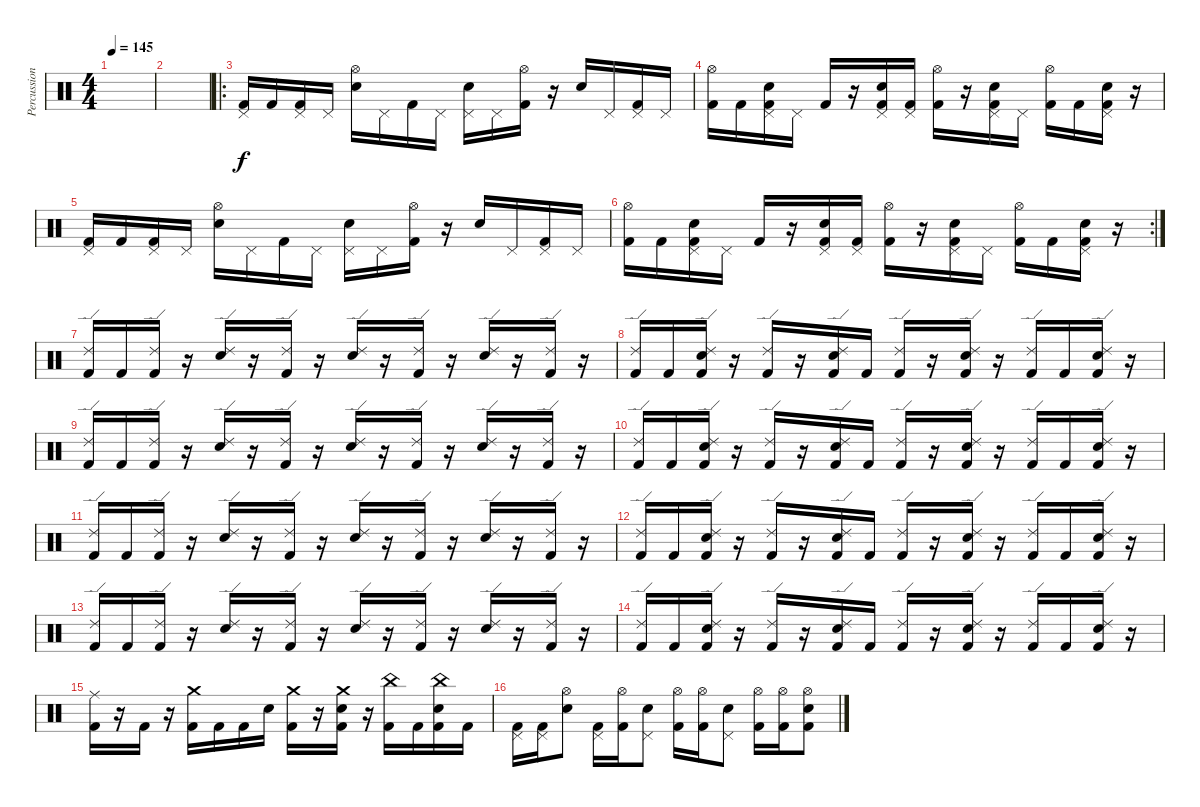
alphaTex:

\track ("Percussion" "Percussion") {instrument percussion}
\staff {score}
\articulation defaults
\ts (4 4)
\tempo 145
\clef neutral
\ks c
|
|
\ro
("Pedal Hi-Hat (hit)" "Kick (hit) 2").16 "Kick (hit) 2".16 ("Pedal Hi-Hat (hit)" "Kick (hit) 2").16 "Pedal Hi-Hat (hit)".16 ("Hi-Hat (open)" "Snare (hit) 2").16 "Pedal Hi-Hat (hit)".16 "Kick (hit) 2".16 "Pedal Hi-Hat (hit)".16 ("Pedal Hi-Hat (hit)" "Snare (hit) 2").16 "Pedal Hi-Hat (hit)".16 ("Hi-Hat (open)" "Kick (hit) 2").16 r.16 "Snare (hit) 2".16 "Pedal Hi-Hat (hit)".16 ("Pedal Hi-Hat (hit)" "Kick (hit) 2").16 "Pedal Hi-Hat (hit)".16 |
("Hi-Hat (open)" "Kick (hit) 2").16 "Kick (hit) 2".16 ("Pedal Hi-Hat (hit)" "Snare (hit) 2" "Kick (hit) 2").16 "Pedal Hi-Hat (hit)".16 "Kick (hit) 2".16 r.16 ("Pedal Hi-Hat (hit)" "Snare (hit) 2" "Kick (hit) 2").16 ("Pedal Hi-Hat (hit)" "Kick (hit) 2").16 ("Hi-Hat (open)" "Kick (hit) 2").16 r.16 ("Pedal Hi-Hat (hit)" "Snare (hit) 2" "Kick (hit) 2").16 "Pedal Hi-Hat (hit)".16 ("Hi-Hat (open)" "Kick (hit) 2").16 "Kick (hit) 2".16 ("Pedal Hi-Hat (hit)" "Snare (hit) 2" "Kick (hit) 2").16 r.16 |
("Pedal Hi-Hat (hit)" "Kick (hit) 2").16 "Kick (hit) 2".16 ("Pedal Hi-Hat (hit)" "Kick (hit) 2").16 "Pedal Hi-Hat (hit)".16 ("Hi-Hat (open)" "Snare (hit) 2").16 "Pedal Hi-Hat (hit)".16 "Kick (hit) 2".16 "Pedal Hi-Hat (hit)".16 ("Pedal Hi-Hat (hit)" "Snare (hit) 2").16 "Pedal Hi-Hat (hit)".16 ("Hi-Hat (open)" "Kick (hit) 2").16 r.16 "Snare (hit) 2".16 "Pedal Hi-Hat (hit)".16 ("Pedal Hi-Hat (hit)" "Kick (hit) 2").16 "Pedal Hi-Hat (hit)".16 |
\rc 2
("Hi-Hat (open)" "Kick (hit) 2").16 "Kick (hit) 2".16 ("Pedal Hi-Hat (hit)" "Snare (hit) 2" "Kick (hit) 2").16 "Pedal Hi-Hat (hit)".16 "Kick (hit) 2".16 r.16 ("Pedal Hi-Hat (hit)" "Snare (hit) 2" "Kick (hit) 2").16 ("Pedal Hi-Hat (hit)" "Kick (hit) 2").16 ("Hi-Hat (open)" "Kick (hit) 2").16 r.16 ("Pedal Hi-Hat (hit)" "Snare (hit) 2" "Kick (hit) 2").16 "Pedal Hi-Hat (hit)".16 ("Hi-Hat (open)" "Kick (hit) 2").16 "Kick (hit) 2".16 ("Pedal Hi-Hat (hit)" "Snare (hit) 2" "Kick (hit) 2").16 r.16 |
("Ride (edge) 2" "Kick (hit) 2").16 "Kick (hit) 2".16 ("Ride (edge) 2" "Kick (hit) 2").16 r.16 ("Ride (edge) 2" "Snare (hit) 2").16 r.16 ("Ride (edge) 2" "Kick (hit) 2").16 r.16 ("Ride (edge) 2" "Snare (hit) 2").16 r.16 ("Ride (edge) 2" "Kick (hit) 2").16 r.16 ("Ride (edge) 2" "Snare (hit) 2").16 r.16 ("Ride (edge) 2" "Kick (hit) 2").16 r.16 |
("Ride (edge) 2" "Kick (hit) 2").16 "Kick (hit) 2".16 ("Ride (edge) 2" "Snare (hit) 2" "Kick (hit) 2").16 r.16 ("Ride (edge) 2" "Kick (hit) 2").16 r.16 ("Ride (edge) 2" "Snare (hit) 2" "Kick (hit) 2").16 "Kick (hit) 2".16 ("Ride (edge) 2" "Kick (hit) 2").16 r.16 ("Ride (edge) 2" "Snare (hit) 2" "Kick (hit) 2").16 r.16 ("Ride (edge) 2" "Kick (hit) 2").16 "Kick (hit) 2".16 ("Ride (edge) 2" "Snare (hit) 2" "Kick (hit) 2").16 r.16 |
("Ride (edge) 2" "Kick (hit) 2").16 "Kick (hit) 2".16 ("Ride (edge) 2" "Kick (hit) 2").16 r.16 ("Ride (edge) 2" "Snare (hit) 2").16 r.16 ("Ride (edge) 2" "Kick (hit) 2").16 r.16 ("Ride (edge) 2" "Snare (hit) 2").16 r.16 ("Ride (edge) 2" "Kick (hit) 2").16 r.16 ("Ride (edge) 2" "Snare (hit) 2").16 r.16 ("Ride (edge) 2" "Kick (hit) 2").16 r.16 |
("Ride (edge) 2" "Kick (hit) 2").16 "Kick (hit) 2".16 ("Ride (edge) 2" "Snare (hit) 2" "Kick (hit) 2").16 r.16 ("Ride (edge) 2" "Kick (hit) 2").16 r.16 ("Ride (edge) 2" "Snare (hit) 2" "Kick (hit) 2").16 "Kick (hit) 2".16 ("Ride (edge) 2" "Kick (hit) 2").16 r.16 ("Ride (edge) 2" "Snare (hit) 2" "Kick (hit) 2").16 r.16 ("Ride (edge) 2" "Kick (hit) 2").16 "Kick (hit) 2".16 ("Ride (edge) 2" "Snare (hit) 2" "Kick (hit) 2").16 r.16 |
("Ride (edge) 2" "Kick (hit) 2").16 "Kick (hit) 2".16 ("Ride (edge) 2" "Kick (hit) 2").16 r.16 ("Ride (edge) 2" "Snare (hit) 2").16 r.16 ("Ride (edge) 2" "Kick (hit) 2").16 r.16 ("Ride (edge) 2" "Snare (hit) 2").16 r.16 ("Ride (edge) 2" "Kick (hit) 2").16 r.16 ("Ride (edge) 2" "Snare (hit) 2").16 r.16 ("Ride (edge) 2" "Kick (hit) 2").16 r.16 |
("Ride (edge) 2" "Kick (hit) 2").16 "Kick (hit) 2".16 ("Ride (edge) 2" "Snare (hit) 2" "Kick (hit) 2").16 r.16 ("Ride (edge) 2" "Kick (hit) 2").16 r.16 ("Ride (edge) 2" "Snare (hit) 2" "Kick (hit) 2").16 "Kick (hit) 2".16 ("Ride (edge) 2" "Kick (hit) 2").16 r.16 ("Ride (edge) 2" "Snare (hit) 2" "Kick (hit) 2").16 r.16 ("Ride (edge) 2" "Kick (hit) 2").16 "Kick (hit) 2".16 ("Ride (edge) 2" "Snare (hit) 2" "Kick (hit) 2").16 r.16 |
("Ride (edge) 2" "Kick (hit) 2").16 "Kick (hit) 2".16 ("Ride (edge) 2" "Kick (hit) 2").16 r.16 ("Ride (edge) 2" "Snare (hit) 2").16 r.16 ("Ride (edge) 2" "Kick (hit) 2").16 r.16 ("Ride (edge) 2" "Snare (hit) 2").16 r.16 ("Ride (edge) 2" "Kick (hit) 2").16 r.16 ("Ride (edge) 2" "Snare (hit) 2").16 r.16 ("Ride (edge) 2" "Kick (hit) 2").16 r.16 |
("Ride (edge) 2" "Kick (hit) 2").16 "Kick (hit) 2".16 ("Ride (edge) 2" "Snare (hit) 2" "Kick (hit) 2").16 r.16 ("Ride (edge) 2" "Kick (hit) 2").16 r.16 ("Ride (edge) 2" "Snare (hit) 2" "Kick (hit) 2").16 "Kick (hit) 2".16 ("Ride (edge) 2" "Kick (hit) 2").16 r.16 ("Ride (edge) 2" "Snare (hit) 2" "Kick (hit) 2").16 r.16 ("Ride (edge) 2" "Kick (hit) 2").16 "Kick (hit) 2".16 ("Ride (edge) 2" "Snare (hit) 2" "Kick (hit) 2").16 r.16 |
("Ride (middle)" "Kick (hit) 2").16 r.16 "Kick (hit) 2".16 r.16 ("Crash medium (hit)" "Kick (hit) 2").16 "Kick (hit) 2".16 "Kick (hit) 2".16 "Snare (hit) 2".16 ("Crash medium (hit)" "Kick (hit) 2").16 r.16 ("Crash medium (hit)" "Snare (hit) 2" "Kick (hit) 2").16 r.16 ("China (hit)" "Kick (hit) 2").16 "Kick (hit) 2".16 ("China (hit)" "Snare (hit) 2" "Kick (hit) 2").16 "Kick (hit) 2".16 |
("Pedal Hi-Hat (hit)" "Kick (hit) 2").16 ("Pedal Hi-Hat (hit)" "Kick (hit) 2").16 ("Hi-Hat (open)" "Snare (hit) 2").8 ("Pedal Hi-Hat (hit)" "Kick (hit) 2").16 ("Hi-Hat (open)" "Kick (hit) 2").16 ("Pedal Hi-Hat (hit)" "Snare (hit) 2").8 ("Hi-Hat (open)" "Kick (hit) 2").16 ("Hi-Hat (open)" "Kick (hit) 2").16 ("Pedal Hi-Hat (hit)" "Snare (hit) 2").8 ("Hi-Hat (open)" "Kick (hit) 2").16 ("Hi-Hat (open)" "Kick (hit) 2").16 ("Hi-Hat (open)" "Snare (hit) 2" "Kick (hit) 2").8
